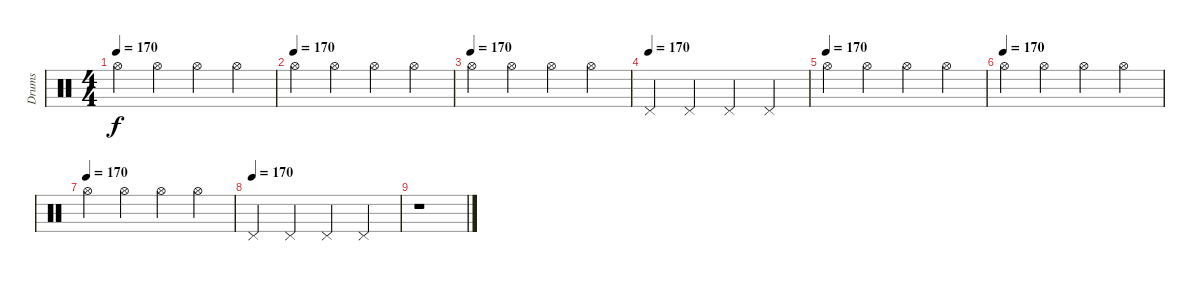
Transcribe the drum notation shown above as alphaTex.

\track ("Drums" "Drums") {instrument percussion}
\staff {score}
\articulation defaults
\ts (4 4)
\tempo 170
\clef neutral
\ks c "Hi-Hat (open)".4{dy f} "Hi-Hat (open)".4 "Hi-Hat (open)".4 "Hi-Hat (open)".4
|
\tempo (170)
"Hi-Hat (open)".4 "Hi-Hat (open)".4 "Hi-Hat (open)".4 "Hi-Hat (open)".4 |
\tempo (170)
"Hi-Hat (open)".4 "Hi-Hat (open)".4 "Hi-Hat (open)".4 "Hi-Hat (open)".4 |
\tempo (170)
"Pedal Hi-Hat (hit)".4 "Pedal Hi-Hat (hit)".4 "Pedal Hi-Hat (hit)".4 "Pedal Hi-Hat (hit)".4 |
\tempo (170)
"Hi-Hat (open)".4 "Hi-Hat (open)".4 "Hi-Hat (open)".4 "Hi-Hat (open)".4 |
\tempo (170)
"Hi-Hat (open)".4 "Hi-Hat (open)".4 "Hi-Hat (open)".4 "Hi-Hat (open)".4 |
\tempo (170)
"Hi-Hat (open)".4 "Hi-Hat (open)".4 "Hi-Hat (open)".4 "Hi-Hat (open)".4 |
\tempo (170)
"Pedal Hi-Hat (hit)".4 "Pedal Hi-Hat (hit)".4 "Pedal Hi-Hat (hit)".4 "Pedal Hi-Hat (hit)".4 |
r.1
